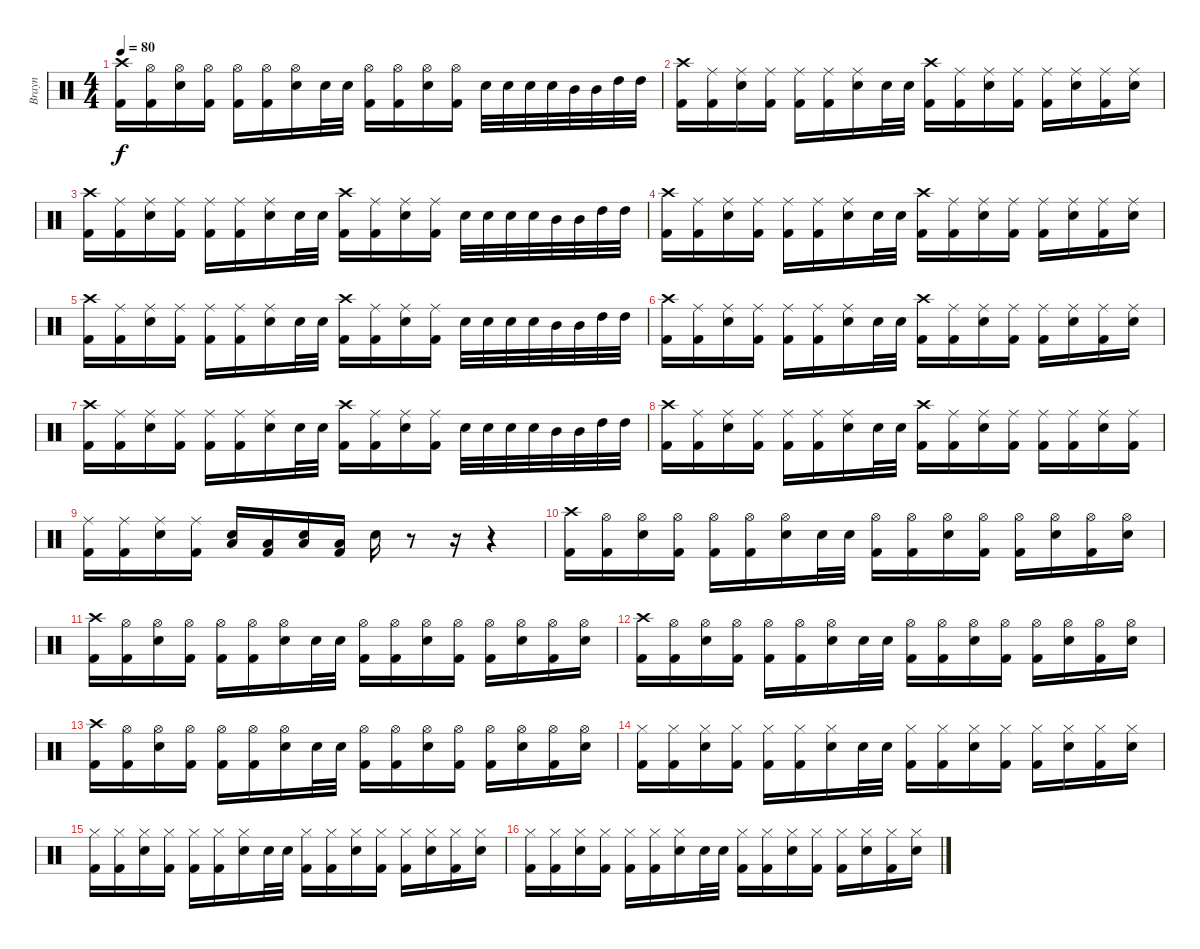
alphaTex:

\track ("Brayn" "Brayn") {instrument percussion}
\staff {score}
\articulation defaults
\ts (4 4)
\tempo 80
\clef neutral
\ks c
("Crash high (hit)" "Kick (hit) 2").16{dy f} ("Hi-Hat (open)" "Kick (hit) 2").16 ("Hi-Hat (open)" "Snare (hit) 2").16 ("Hi-Hat (open)" "Kick (hit) 2").16 ("Hi-Hat (open)" "Kick (hit) 2").16 ("Hi-Hat (open)" "Kick (hit) 2").16 ("Hi-Hat (open)" "Snare (hit) 2").16 "Snare (hit) 2".32 "Snare (hit) 2".32 ("Hi-Hat (open)" "Kick (hit) 2").16 ("Hi-Hat (open)" "Kick (hit) 2").16 ("Hi-Hat (open)" "Snare (hit) 2").16 ("Hi-Hat (open)" "Kick (hit) 2").16 "Snare (hit) 2".32 "Snare (hit) 2".32 "Snare (hit) 2".32 "Snare (hit) 2".32 "Mid Tom (hit)".32 "Mid Tom (hit)".32 "High Tom (hit)".32 "High Tom (hit)".32 |
("Crash high (hit)" "Kick (hit) 2").16 ("Ride (middle)" "Kick (hit) 2").16 ("Ride (middle)" "Snare (hit) 2").16 ("Ride (middle)" "Kick (hit) 2").16 ("Ride (middle)" "Kick (hit) 2").16 ("Ride (middle)" "Kick (hit) 2").16 ("Ride (middle)" "Snare (hit) 2").16 "Snare (hit) 2".32 "Snare (hit) 2".32 ("Crash high (hit)" "Kick (hit) 2").16 ("Ride (middle)" "Kick (hit) 2").16 ("Ride (middle)" "Snare (hit) 2").16 ("Ride (middle)" "Kick (hit) 2").16 ("Ride (middle)" "Kick (hit) 2").16 ("Ride (middle)" "Snare (hit) 2").16 ("Ride (middle)" "Kick (hit) 2").16 ("Ride (middle)" "Snare (hit) 2").16 |
("Crash high (hit)" "Kick (hit) 2").16 ("Ride (middle)" "Kick (hit) 2").16 ("Ride (middle)" "Snare (hit) 2").16 ("Ride (middle)" "Kick (hit) 2").16 ("Ride (middle)" "Kick (hit) 2").16 ("Ride (middle)" "Kick (hit) 2").16 ("Ride (middle)" "Snare (hit) 2").16 "Snare (hit) 2".32 "Snare (hit) 2".32 ("Crash high (hit)" "Kick (hit) 2").16 ("Ride (middle)" "Kick (hit) 2").16 ("Ride (middle)" "Snare (hit) 2").16 ("Ride (middle)" "Kick (hit) 2").16 "Snare (hit) 2".32 "Snare (hit) 2".32 "Snare (hit) 2".32 "Snare (hit) 2".32 "Mid Tom (hit)".32 "Mid Tom (hit)".32 "High Tom (hit)".32 "High Tom (hit)".32 |
("Crash high (hit)" "Kick (hit) 2").16 ("Ride (middle)" "Kick (hit) 2").16 ("Ride (middle)" "Snare (hit) 2").16 ("Ride (middle)" "Kick (hit) 2").16 ("Ride (middle)" "Kick (hit) 2").16 ("Ride (middle)" "Kick (hit) 2").16 ("Ride (middle)" "Snare (hit) 2").16 "Snare (hit) 2".32 "Snare (hit) 2".32 ("Crash high (hit)" "Kick (hit) 2").16 ("Ride (middle)" "Kick (hit) 2").16 ("Ride (middle)" "Snare (hit) 2").16 ("Ride (middle)" "Kick (hit) 2").16 ("Ride (middle)" "Kick (hit) 2").16 ("Ride (middle)" "Snare (hit) 2").16 ("Ride (middle)" "Kick (hit) 2").16 ("Ride (middle)" "Snare (hit) 2").16 |
("Crash high (hit)" "Kick (hit) 2").16 ("Ride (middle)" "Kick (hit) 2").16 ("Ride (middle)" "Snare (hit) 2").16 ("Ride (middle)" "Kick (hit) 2").16 ("Ride (middle)" "Kick (hit) 2").16 ("Ride (middle)" "Kick (hit) 2").16 ("Ride (middle)" "Snare (hit) 2").16 "Snare (hit) 2".32 "Snare (hit) 2".32 ("Crash high (hit)" "Kick (hit) 2").16 ("Ride (middle)" "Kick (hit) 2").16 ("Ride (middle)" "Snare (hit) 2").16 ("Ride (middle)" "Kick (hit) 2").16 "Snare (hit) 2".32 "Snare (hit) 2".32 "Snare (hit) 2".32 "Snare (hit) 2".32 "Mid Tom (hit)".32 "Mid Tom (hit)".32 "High Tom (hit)".32 "High Tom (hit)".32 |
("Crash high (hit)" "Kick (hit) 2").16 ("Ride (middle)" "Kick (hit) 2").16 ("Ride (middle)" "Snare (hit) 2").16 ("Ride (middle)" "Kick (hit) 2").16 ("Ride (middle)" "Kick (hit) 2").16 ("Ride (middle)" "Kick (hit) 2").16 ("Ride (middle)" "Snare (hit) 2").16 "Snare (hit) 2".32 "Snare (hit) 2".32 ("Crash high (hit)" "Kick (hit) 2").16 ("Ride (middle)" "Kick (hit) 2").16 ("Ride (middle)" "Snare (hit) 2").16 ("Ride (middle)" "Kick (hit) 2").16 ("Ride (middle)" "Kick (hit) 2").16 ("Ride (middle)" "Snare (hit) 2").16 ("Ride (middle)" "Kick (hit) 2").16 ("Ride (middle)" "Snare (hit) 2").16 |
("Crash high (hit)" "Kick (hit) 2").16 ("Ride (middle)" "Kick (hit) 2").16 ("Ride (middle)" "Snare (hit) 2").16 ("Ride (middle)" "Kick (hit) 2").16 ("Ride (middle)" "Kick (hit) 2").16 ("Ride (middle)" "Kick (hit) 2").16 ("Ride (middle)" "Snare (hit) 2").16 "Snare (hit) 2".32 "Snare (hit) 2".32 ("Crash high (hit)" "Kick (hit) 2").16 ("Ride (middle)" "Kick (hit) 2").16 ("Ride (middle)" "Snare (hit) 2").16 ("Ride (middle)" "Kick (hit) 2").16 "Snare (hit) 2".32 "Snare (hit) 2".32 "Snare (hit) 2".32 "Snare (hit) 2".32 "Mid Tom (hit)".32 "Mid Tom (hit)".32 "High Tom (hit)".32 "High Tom (hit)".32 |
("Crash high (hit)" "Kick (hit) 2").16 ("Ride (middle)" "Kick (hit) 2").16 ("Ride (middle)" "Snare (hit) 2").16 ("Ride (middle)" "Kick (hit) 2").16 ("Ride (middle)" "Kick (hit) 2").16 ("Ride (middle)" "Kick (hit) 2").16 ("Ride (middle)" "Snare (hit) 2").16 "Snare (hit) 2".32 "Snare (hit) 2".32 ("Crash high (hit)" "Kick (hit) 2").16 ("Ride (middle)" "Kick (hit) 2").16 ("Ride (middle)" "Snare (hit) 2").16 ("Ride (middle)" "Kick (hit) 2").16 ("Ride (middle)" "Kick (hit) 2").16 ("Ride (middle)" "Kick (hit) 2").16 ("Ride (middle)" "Snare (hit) 2").16 ("Ride (middle)" "Kick (hit) 2").16 |
("Ride (middle)" "Kick (hit) 2").16 ("Ride (middle)" "Kick (hit) 2").16 ("Ride (middle)" "Snare (hit) 2").16 ("Ride (middle)" "Kick (hit) 2").16 ("Low Tom (hit)" "Snare (hit) 2").16 ("Low Tom (hit)" "Kick (hit) 2").16 ("Low Tom (hit)" "Snare (hit) 2").16 ("Low Tom (hit)" "Kick (hit) 2").16 "Snare (hit) 2".16 r.8 r.16 r.4 |
("Crash high (hit)" "Kick (hit) 2").16 ("Hi-Hat (open)" "Kick (hit) 2").16 ("Hi-Hat (open)" "Snare (hit) 2").16 ("Hi-Hat (open)" "Kick (hit) 2").16 ("Hi-Hat (open)" "Kick (hit) 2").16 ("Hi-Hat (open)" "Kick (hit) 2").16 ("Hi-Hat (open)" "Snare (hit) 2").16 "Snare (hit) 2".32 "Snare (hit) 2".32 ("Hi-Hat (open)" "Kick (hit) 2").16 ("Hi-Hat (open)" "Kick (hit) 2").16 ("Hi-Hat (open)" "Snare (hit) 2").16 ("Hi-Hat (open)" "Kick (hit) 2").16 ("Hi-Hat (open)" "Kick (hit) 2").16 ("Hi-Hat (open)" "Snare (hit) 2").16 ("Hi-Hat (open)" "Kick (hit) 2").16 ("Hi-Hat (open)" "Snare (hit) 2").16 |
("Crash high (hit)" "Kick (hit) 2").16 ("Hi-Hat (open)" "Kick (hit) 2").16 ("Hi-Hat (open)" "Snare (hit) 2").16 ("Hi-Hat (open)" "Kick (hit) 2").16 ("Hi-Hat (open)" "Kick (hit) 2").16 ("Hi-Hat (open)" "Kick (hit) 2").16 ("Hi-Hat (open)" "Snare (hit) 2").16 "Snare (hit) 2".32 "Snare (hit) 2".32 ("Hi-Hat (open)" "Kick (hit) 2").16 ("Hi-Hat (open)" "Kick (hit) 2").16 ("Hi-Hat (open)" "Snare (hit) 2").16 ("Hi-Hat (open)" "Kick (hit) 2").16 ("Hi-Hat (open)" "Kick (hit) 2").16 ("Hi-Hat (open)" "Snare (hit) 2").16 ("Hi-Hat (open)" "Kick (hit) 2").16 ("Hi-Hat (open)" "Snare (hit) 2").16 |
("Crash high (hit)" "Kick (hit) 2").16 ("Hi-Hat (open)" "Kick (hit) 2").16 ("Hi-Hat (open)" "Snare (hit) 2").16 ("Hi-Hat (open)" "Kick (hit) 2").16 ("Hi-Hat (open)" "Kick (hit) 2").16 ("Hi-Hat (open)" "Kick (hit) 2").16 ("Hi-Hat (open)" "Snare (hit) 2").16 "Snare (hit) 2".32 "Snare (hit) 2".32 ("Hi-Hat (open)" "Kick (hit) 2").16 ("Hi-Hat (open)" "Kick (hit) 2").16 ("Hi-Hat (open)" "Snare (hit) 2").16 ("Hi-Hat (open)" "Kick (hit) 2").16 ("Hi-Hat (open)" "Kick (hit) 2").16 ("Hi-Hat (open)" "Snare (hit) 2").16 ("Hi-Hat (open)" "Kick (hit) 2").16 ("Hi-Hat (open)" "Snare (hit) 2").16 |
("Crash high (hit)" "Kick (hit) 2").16 ("Hi-Hat (open)" "Kick (hit) 2").16 ("Hi-Hat (open)" "Snare (hit) 2").16 ("Hi-Hat (open)" "Kick (hit) 2").16 ("Hi-Hat (open)" "Kick (hit) 2").16 ("Hi-Hat (open)" "Kick (hit) 2").16 ("Hi-Hat (open)" "Snare (hit) 2").16 "Snare (hit) 2".32 "Snare (hit) 2".32 ("Hi-Hat (open)" "Kick (hit) 2").16 ("Hi-Hat (open)" "Kick (hit) 2").16 ("Hi-Hat (open)" "Snare (hit) 2").16 ("Hi-Hat (open)" "Kick (hit) 2").16 ("Hi-Hat (open)" "Kick (hit) 2").16 ("Hi-Hat (open)" "Snare (hit) 2").16 ("Hi-Hat (open)" "Kick (hit) 2").16 ("Hi-Hat (open)" "Snare (hit) 2").16 |
("Hi-Hat (closed)" "Kick (hit) 2").16 ("Hi-Hat (closed)" "Kick (hit) 2").16 ("Hi-Hat (closed)" "Snare (hit) 2").16 ("Hi-Hat (closed)" "Kick (hit) 2").16 ("Hi-Hat (closed)" "Kick (hit) 2").16 ("Hi-Hat (closed)" "Kick (hit) 2").16 ("Hi-Hat (closed)" "Snare (hit) 2").16 "Snare (hit) 2".32 "Snare (hit) 2".32 ("Hi-Hat (closed)" "Kick (hit) 2").16 ("Hi-Hat (closed)" "Kick (hit) 2").16 ("Hi-Hat (closed)" "Snare (hit) 2").16 ("Hi-Hat (closed)" "Kick (hit) 2").16 ("Hi-Hat (closed)" "Kick (hit) 2").16 ("Hi-Hat (closed)" "Snare (hit) 2").16 ("Hi-Hat (closed)" "Kick (hit) 2").16 ("Hi-Hat (closed)" "Snare (hit) 2").16 |
("Hi-Hat (closed)" "Kick (hit) 2").16 ("Hi-Hat (closed)" "Kick (hit) 2").16 ("Hi-Hat (closed)" "Snare (hit) 2").16 ("Hi-Hat (closed)" "Kick (hit) 2").16 ("Hi-Hat (closed)" "Kick (hit) 2").16 ("Hi-Hat (closed)" "Kick (hit) 2").16 ("Hi-Hat (closed)" "Snare (hit) 2").16 "Snare (hit) 2".32 "Snare (hit) 2".32 ("Hi-Hat (closed)" "Kick (hit) 2").16 ("Hi-Hat (closed)" "Kick (hit) 2").16 ("Hi-Hat (closed)" "Snare (hit) 2").16 ("Hi-Hat (closed)" "Kick (hit) 2").16 ("Hi-Hat (closed)" "Kick (hit) 2").16 ("Hi-Hat (closed)" "Snare (hit) 2").16 ("Hi-Hat (closed)" "Kick (hit) 2").16 ("Hi-Hat (closed)" "Snare (hit) 2").16 |
("Hi-Hat (closed)" "Kick (hit) 2").16 ("Hi-Hat (closed)" "Kick (hit) 2").16 ("Hi-Hat (closed)" "Snare (hit) 2").16 ("Hi-Hat (closed)" "Kick (hit) 2").16 ("Hi-Hat (closed)" "Kick (hit) 2").16 ("Hi-Hat (closed)" "Kick (hit) 2").16 ("Hi-Hat (closed)" "Snare (hit) 2").16 "Snare (hit) 2".32 "Snare (hit) 2".32 ("Hi-Hat (closed)" "Kick (hit) 2").16 ("Hi-Hat (closed)" "Kick (hit) 2").16 ("Hi-Hat (closed)" "Snare (hit) 2").16 ("Hi-Hat (closed)" "Kick (hit) 2").16 ("Hi-Hat (closed)" "Kick (hit) 2").16 ("Hi-Hat (closed)" "Snare (hit) 2").16 ("Hi-Hat (closed)" "Kick (hit) 2").16 ("Hi-Hat (closed)" "Snare (hit) 2").16
